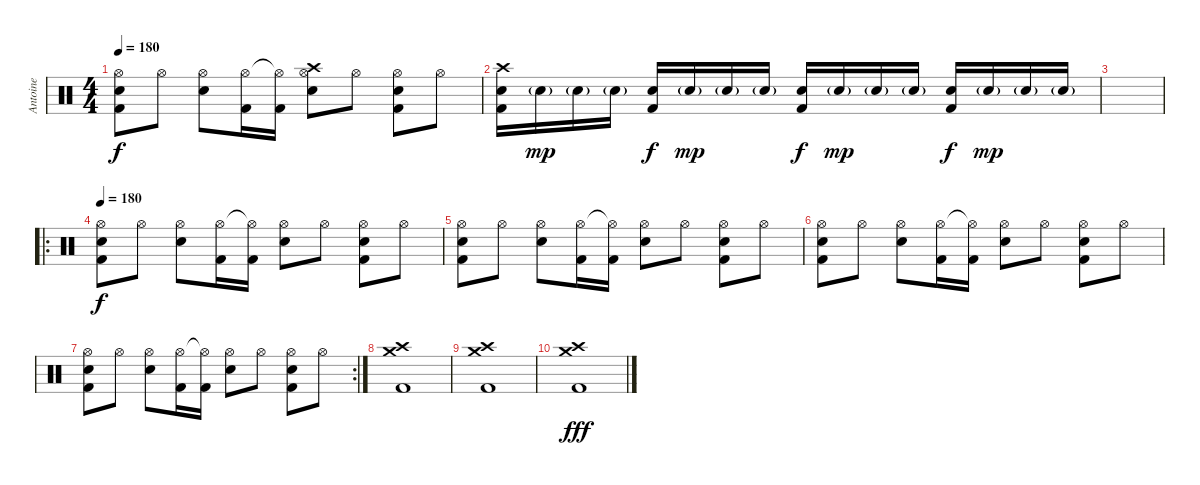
\track ("Antoine" "Antoine") {instrument percussion}
\staff {score}
\articulation defaults
\ts (4 4)
\tempo 180
\clef neutral
\ks c
("Hi-Hat (open)" "Electric Snare (hit)" "Kick (hit) 2").8{dy f} "Hi-Hat (open)".8 ("Hi-Hat (open)" "Electric Snare (hit)").8 ("Hi-Hat (open)" "Kick (hit) 2").16 ("Hi-Hat (open)"{t} "Kick (hit) 2").16 ("Crash high (hit)" "Hi-Hat (open)" "Electric Snare (hit)").8 "Hi-Hat (open)".8 ("Hi-Hat (open)" "Electric Snare (hit)" "Kick (hit) 2").8 "Hi-Hat (open)".8 |
("Crash high (hit)" "Electric Snare (hit)" "Kick (hit) 2").16 "Electric Snare (hit)"{g}.16{dy mp} "Electric Snare (hit)"{g}.16 "Electric Snare (hit)"{g}.16 ("Electric Snare (hit)" "Kick (hit) 2").16{dy f} "Electric Snare (hit)"{g}.16{dy mp} "Electric Snare (hit)"{g}.16 "Electric Snare (hit)"{g}.16 ("Electric Snare (hit)" "Kick (hit) 2").16{dy f} "Electric Snare (hit)"{g}.16{dy mp} "Electric Snare (hit)"{g}.16 "Electric Snare (hit)"{g}.16 ("Electric Snare (hit)" "Kick (hit) 2").16{dy f} "Electric Snare (hit)"{g}.16{dy mp} "Electric Snare (hit)"{g}.16 "Electric Snare (hit)"{g}.16 |
|
\ro
\tempo 180
("Hi-Hat (open)" "Electric Snare (hit)" "Kick (hit) 2").8{dy f} "Hi-Hat (open)".8 ("Hi-Hat (open)" "Electric Snare (hit)").8 ("Hi-Hat (open)" "Kick (hit) 2").16 ("Hi-Hat (open)"{t} "Kick (hit) 2").16 ("Hi-Hat (open)" "Electric Snare (hit)").8 "Hi-Hat (open)".8 ("Hi-Hat (open)" "Electric Snare (hit)" "Kick (hit) 2").8 "Hi-Hat (open)".8 |
("Hi-Hat (open)" "Electric Snare (hit)" "Kick (hit) 2").8 "Hi-Hat (open)".8 ("Hi-Hat (open)" "Electric Snare (hit)").8 ("Hi-Hat (open)" "Kick (hit) 2").16 ("Hi-Hat (open)"{t} "Kick (hit) 2").16 ("Hi-Hat (open)" "Electric Snare (hit)").8 "Hi-Hat (open)".8 ("Hi-Hat (open)" "Electric Snare (hit)" "Kick (hit) 2").8 "Hi-Hat (open)".8 |
("Hi-Hat (open)" "Electric Snare (hit)" "Kick (hit) 2").8 "Hi-Hat (open)".8 ("Hi-Hat (open)" "Electric Snare (hit)").8 ("Hi-Hat (open)" "Kick (hit) 2").16 ("Hi-Hat (open)"{t} "Kick (hit) 2").16 ("Hi-Hat (open)" "Electric Snare (hit)").8 "Hi-Hat (open)".8 ("Hi-Hat (open)" "Electric Snare (hit)" "Kick (hit) 2").8 "Hi-Hat (open)".8 |
\rc 2
("Hi-Hat (open)" "Electric Snare (hit)" "Kick (hit) 2").8 "Hi-Hat (open)".8 ("Hi-Hat (open)" "Electric Snare (hit)").8 ("Hi-Hat (open)" "Kick (hit) 2").16 ("Hi-Hat (open)"{t} "Kick (hit) 2").16 ("Hi-Hat (open)" "Electric Snare (hit)").8 "Hi-Hat (open)".8 ("Hi-Hat (open)" "Electric Snare (hit)" "Kick (hit) 2").8 "Hi-Hat (open)".8 |
("Crash high (hit)" "Crash medium (hit)" "Kick (hit) 2").1 |
("Crash high (hit)" "Crash medium (hit)" "Kick (hit) 2").1 |
("Crash high (hit)" "Crash medium (hit)" "Kick (hit) 2").1{dy fff}
